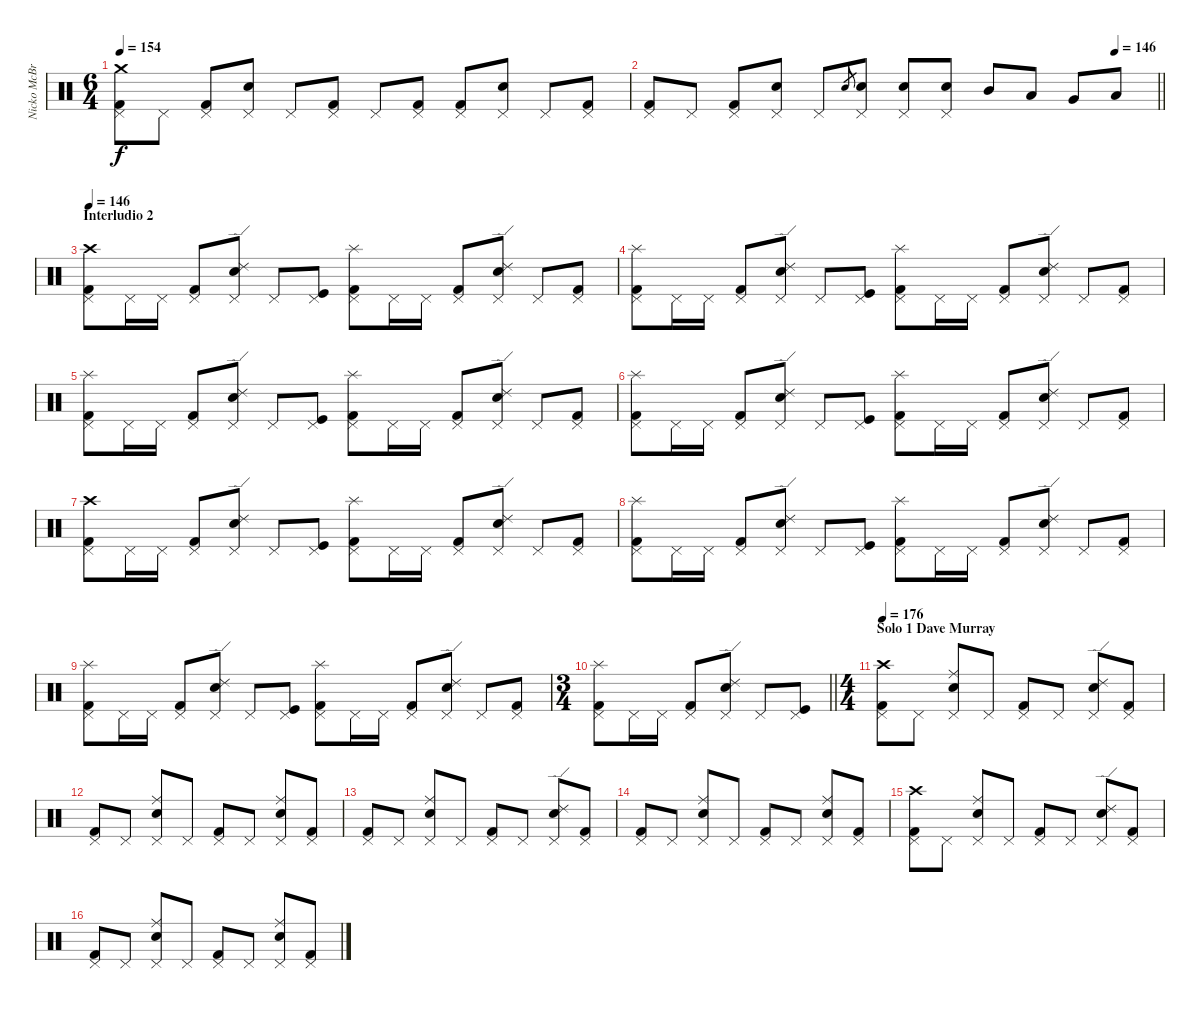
\track ("Nicko McBrain" "Nicko McBr") {instrument percussion}
\staff {score}
\articulation defaults
\ts (6 4)
\tempo 154
\clef neutral
\ks c
("Kick (hit) 2" "Pedal Hi-Hat (hit)" "Crash medium (hit)").8{dy f} "Pedal Hi-Hat (hit)".8 ("Kick (hit) 2" "Pedal Hi-Hat (hit)").8 ("Snare (hit) 2" "Pedal Hi-Hat (hit)").8 "Pedal Hi-Hat (hit)".8 ("Kick (hit) 2" "Pedal Hi-Hat (hit)").8 "Pedal Hi-Hat (hit)".8 ("Kick (hit) 2" "Pedal Hi-Hat (hit)").8 ("Kick (hit) 2" "Pedal Hi-Hat (hit)").8 ("Snare (hit) 2" "Pedal Hi-Hat (hit)").8 "Pedal Hi-Hat (hit)".8 ("Kick (hit) 2" "Pedal Hi-Hat (hit)").8 |
\tempo (146 0.9166666666666666)
\barLineRight lightlight
("Kick (hit) 2" "Pedal Hi-Hat (hit)").8 "Pedal Hi-Hat (hit)".8 ("Kick (hit) 2" "Pedal Hi-Hat (hit)").8 ("Snare (hit) 2" "Pedal Hi-Hat (hit)").8 "Pedal Hi-Hat (hit)".8 "Snare (hit) 2".8{gr} ("Snare (hit) 2" "Pedal Hi-Hat (hit)").8 ("Snare (hit) 2" "Pedal Hi-Hat (hit)").8 ("Snare (hit) 2" "Pedal Hi-Hat (hit)").8 "Mid Tom (hit)".8 "Low Tom (hit)".8 "Very Low Tom (hit)".8 "Low Floor Tom (hit)".8 |
\section ("" "Interludio 2")
\tempo 146
("Kick (hit) 2" "Pedal Hi-Hat (hit)" "Crash high (hit)").8 "Pedal Hi-Hat (hit)".16 "Pedal Hi-Hat (hit)".16 ("Kick (hit) 2" "Pedal Hi-Hat (hit)").8 ("Snare (hit) 2" "Pedal Hi-Hat (hit)" "Ride (edge) 2").8 "Pedal Hi-Hat (hit)".8 ("Kick (hit)" "Pedal Hi-Hat (hit)").8 ("Kick (hit) 2" "Pedal Hi-Hat (hit)" "Splash (hit)").8 "Pedal Hi-Hat (hit)".16 "Pedal Hi-Hat (hit)".16 ("Kick (hit) 2" "Pedal Hi-Hat (hit)").8 ("Snare (hit) 2" "Pedal Hi-Hat (hit)" "Ride (edge) 2").8 "Pedal Hi-Hat (hit)".8 ("Kick (hit) 2" "Pedal Hi-Hat (hit)").8 |
("Kick (hit) 2" "Pedal Hi-Hat (hit)" "Splash (hit)").8 "Pedal Hi-Hat (hit)".16 "Pedal Hi-Hat (hit)".16 ("Kick (hit) 2" "Pedal Hi-Hat (hit)").8 ("Snare (hit) 2" "Pedal Hi-Hat (hit)" "Ride (edge) 2").8 "Pedal Hi-Hat (hit)".8 ("Kick (hit)" "Pedal Hi-Hat (hit)").8 ("Kick (hit) 2" "Pedal Hi-Hat (hit)" "Splash (hit)").8 "Pedal Hi-Hat (hit)".16 "Pedal Hi-Hat (hit)".16 ("Kick (hit) 2" "Pedal Hi-Hat (hit)").8 ("Snare (hit) 2" "Pedal Hi-Hat (hit)" "Ride (edge) 2").8 "Pedal Hi-Hat (hit)".8 ("Kick (hit) 2" "Pedal Hi-Hat (hit)").8 |
("Kick (hit) 2" "Pedal Hi-Hat (hit)" "Splash (hit)").8 "Pedal Hi-Hat (hit)".16 "Pedal Hi-Hat (hit)".16 ("Kick (hit) 2" "Pedal Hi-Hat (hit)").8 ("Snare (hit) 2" "Pedal Hi-Hat (hit)" "Ride (edge) 2").8 "Pedal Hi-Hat (hit)".8 ("Kick (hit)" "Pedal Hi-Hat (hit)").8 ("Kick (hit) 2" "Pedal Hi-Hat (hit)" "Splash (hit)").8 "Pedal Hi-Hat (hit)".16 "Pedal Hi-Hat (hit)".16 ("Kick (hit) 2" "Pedal Hi-Hat (hit)").8 ("Snare (hit) 2" "Pedal Hi-Hat (hit)" "Ride (edge) 2").8 "Pedal Hi-Hat (hit)".8 ("Kick (hit) 2" "Pedal Hi-Hat (hit)").8 |
("Kick (hit) 2" "Pedal Hi-Hat (hit)" "Splash (hit)").8 "Pedal Hi-Hat (hit)".16 "Pedal Hi-Hat (hit)".16 ("Kick (hit) 2" "Pedal Hi-Hat (hit)").8 ("Snare (hit) 2" "Pedal Hi-Hat (hit)" "Ride (edge) 2").8 "Pedal Hi-Hat (hit)".8 ("Kick (hit)" "Pedal Hi-Hat (hit)").8 ("Kick (hit) 2" "Pedal Hi-Hat (hit)" "Splash (hit)").8 "Pedal Hi-Hat (hit)".16 "Pedal Hi-Hat (hit)".16 ("Kick (hit) 2" "Pedal Hi-Hat (hit)").8 ("Snare (hit) 2" "Pedal Hi-Hat (hit)" "Ride (edge) 2").8 "Pedal Hi-Hat (hit)".8 ("Kick (hit) 2" "Pedal Hi-Hat (hit)").8 |
("Kick (hit) 2" "Pedal Hi-Hat (hit)" "Crash high (hit)").8 "Pedal Hi-Hat (hit)".16 "Pedal Hi-Hat (hit)".16 ("Kick (hit) 2" "Pedal Hi-Hat (hit)").8 ("Snare (hit) 2" "Pedal Hi-Hat (hit)" "Ride (edge) 2").8 "Pedal Hi-Hat (hit)".8 ("Kick (hit)" "Pedal Hi-Hat (hit)").8 ("Kick (hit) 2" "Pedal Hi-Hat (hit)" "Splash (hit)").8 "Pedal Hi-Hat (hit)".16 "Pedal Hi-Hat (hit)".16 ("Kick (hit) 2" "Pedal Hi-Hat (hit)").8 ("Snare (hit) 2" "Pedal Hi-Hat (hit)" "Ride (edge) 2").8 "Pedal Hi-Hat (hit)".8 ("Kick (hit) 2" "Pedal Hi-Hat (hit)").8 |
("Kick (hit) 2" "Pedal Hi-Hat (hit)" "Splash (hit)").8 "Pedal Hi-Hat (hit)".16 "Pedal Hi-Hat (hit)".16 ("Kick (hit) 2" "Pedal Hi-Hat (hit)").8 ("Snare (hit) 2" "Pedal Hi-Hat (hit)" "Ride (edge) 2").8 "Pedal Hi-Hat (hit)".8 ("Kick (hit)" "Pedal Hi-Hat (hit)").8 ("Kick (hit) 2" "Pedal Hi-Hat (hit)" "Splash (hit)").8 "Pedal Hi-Hat (hit)".16 "Pedal Hi-Hat (hit)".16 ("Kick (hit) 2" "Pedal Hi-Hat (hit)").8 ("Snare (hit) 2" "Pedal Hi-Hat (hit)" "Ride (edge) 2").8 "Pedal Hi-Hat (hit)".8 ("Kick (hit) 2" "Pedal Hi-Hat (hit)").8 |
("Kick (hit) 2" "Pedal Hi-Hat (hit)" "Splash (hit)").8 "Pedal Hi-Hat (hit)".16 "Pedal Hi-Hat (hit)".16 ("Kick (hit) 2" "Pedal Hi-Hat (hit)").8 ("Snare (hit) 2" "Pedal Hi-Hat (hit)" "Ride (edge) 2").8 "Pedal Hi-Hat (hit)".8 ("Kick (hit)" "Pedal Hi-Hat (hit)").8 ("Kick (hit) 2" "Pedal Hi-Hat (hit)" "Splash (hit)").8 "Pedal Hi-Hat (hit)".16 "Pedal Hi-Hat (hit)".16 ("Kick (hit) 2" "Pedal Hi-Hat (hit)").8 ("Snare (hit) 2" "Pedal Hi-Hat (hit)" "Ride (edge) 2").8 "Pedal Hi-Hat (hit)".8 ("Kick (hit) 2" "Pedal Hi-Hat (hit)").8 |
\ts (3 4)
\barLineRight lightlight
("Kick (hit) 2" "Pedal Hi-Hat (hit)" "Splash (hit)").8 "Pedal Hi-Hat (hit)".16 "Pedal Hi-Hat (hit)".16 ("Kick (hit) 2" "Pedal Hi-Hat (hit)").8 ("Snare (hit) 2" "Pedal Hi-Hat (hit)" "Ride (edge) 2").8 "Pedal Hi-Hat (hit)".8 ("Kick (hit)" "Pedal Hi-Hat (hit)").8 |
\ts (4 4)
\section ("" "Solo 1 Dave Murray")
\tempo 176
("Kick (hit) 2" "Pedal Hi-Hat (hit)" "Crash high (hit)").8 "Pedal Hi-Hat (hit)".8 ("Snare (hit) 2" "Pedal Hi-Hat (hit)" "Ride (middle)").8 "Pedal Hi-Hat (hit)".8 ("Kick (hit) 2" "Pedal Hi-Hat (hit)").8 "Pedal Hi-Hat (hit)".8 ("Snare (hit) 2" "Pedal Hi-Hat (hit)" "Ride (edge) 2").8 ("Kick (hit) 2" "Pedal Hi-Hat (hit)").8 |
("Kick (hit) 2" "Pedal Hi-Hat (hit)").8 "Pedal Hi-Hat (hit)".8 ("Snare (hit) 2" "Pedal Hi-Hat (hit)" "Ride (middle)").8 "Pedal Hi-Hat (hit)".8 ("Kick (hit) 2" "Pedal Hi-Hat (hit)").8 "Pedal Hi-Hat (hit)".8 ("Snare (hit) 2" "Pedal Hi-Hat (hit)" "Ride (middle)").8 ("Kick (hit) 2" "Pedal Hi-Hat (hit)").8 |
("Kick (hit) 2" "Pedal Hi-Hat (hit)").8 "Pedal Hi-Hat (hit)".8 ("Snare (hit) 2" "Pedal Hi-Hat (hit)" "Ride (middle)").8 "Pedal Hi-Hat (hit)".8 ("Kick (hit) 2" "Pedal Hi-Hat (hit)").8 "Pedal Hi-Hat (hit)".8 ("Snare (hit) 2" "Pedal Hi-Hat (hit)" "Ride (edge) 2").8 ("Kick (hit) 2" "Pedal Hi-Hat (hit)").8 |
("Kick (hit) 2" "Pedal Hi-Hat (hit)").8 "Pedal Hi-Hat (hit)".8 ("Snare (hit) 2" "Pedal Hi-Hat (hit)" "Ride (middle)").8 "Pedal Hi-Hat (hit)".8 ("Kick (hit) 2" "Pedal Hi-Hat (hit)").8 "Pedal Hi-Hat (hit)".8 ("Snare (hit) 2" "Pedal Hi-Hat (hit)" "Ride (middle)").8 ("Kick (hit) 2" "Pedal Hi-Hat (hit)").8 |
("Kick (hit) 2" "Pedal Hi-Hat (hit)" "Crash high (hit)").8 "Pedal Hi-Hat (hit)".8 ("Snare (hit) 2" "Pedal Hi-Hat (hit)" "Ride (middle)").8 "Pedal Hi-Hat (hit)".8 ("Kick (hit) 2" "Pedal Hi-Hat (hit)").8 "Pedal Hi-Hat (hit)".8 ("Snare (hit) 2" "Pedal Hi-Hat (hit)" "Ride (edge) 2").8 ("Kick (hit) 2" "Pedal Hi-Hat (hit)").8 |
("Kick (hit) 2" "Pedal Hi-Hat (hit)").8 "Pedal Hi-Hat (hit)".8 ("Snare (hit) 2" "Pedal Hi-Hat (hit)" "Ride (middle)").8 "Pedal Hi-Hat (hit)".8 ("Kick (hit) 2" "Pedal Hi-Hat (hit)").8 "Pedal Hi-Hat (hit)".8 ("Snare (hit) 2" "Pedal Hi-Hat (hit)" "Ride (middle)").8 ("Kick (hit) 2" "Pedal Hi-Hat (hit)").8
